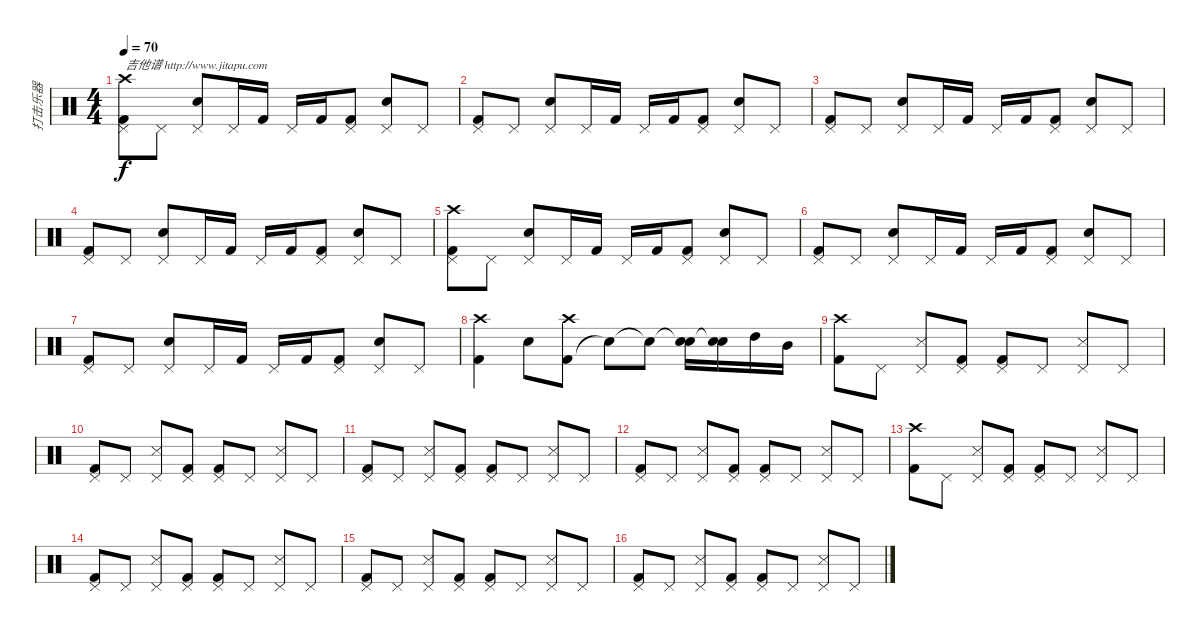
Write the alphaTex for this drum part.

\track ("打击乐器" "打击乐器") {instrument percussion}
\staff {score}
\articulation defaults
\ts (4 4)
\tempo 70
\clef neutral
\ks c
("Pedal Hi-Hat (hit)" "Kick (hit) 2" "Crash high (hit)").8{txt "吉他谱 http://www.jitapu.com" dy f} "Pedal Hi-Hat (hit)".8 ("Pedal Hi-Hat (hit)" "Snare (hit) 2").8 "Pedal Hi-Hat (hit)".16 "Kick (hit) 2".16 "Pedal Hi-Hat (hit)".16 "Kick (hit) 2".16 ("Pedal Hi-Hat (hit)" "Kick (hit) 2").8 ("Pedal Hi-Hat (hit)" "Snare (hit) 2").8 "Pedal Hi-Hat (hit)".8 |
("Pedal Hi-Hat (hit)" "Kick (hit) 2").8 "Pedal Hi-Hat (hit)".8 ("Pedal Hi-Hat (hit)" "Snare (hit) 2").8 "Pedal Hi-Hat (hit)".16 "Kick (hit) 2".16 "Pedal Hi-Hat (hit)".16 "Kick (hit) 2".16 ("Pedal Hi-Hat (hit)" "Kick (hit) 2").8 ("Pedal Hi-Hat (hit)" "Snare (hit) 2").8 "Pedal Hi-Hat (hit)".8 |
("Pedal Hi-Hat (hit)" "Kick (hit) 2").8 "Pedal Hi-Hat (hit)".8 ("Pedal Hi-Hat (hit)" "Snare (hit) 2").8 "Pedal Hi-Hat (hit)".16 "Kick (hit) 2".16 "Pedal Hi-Hat (hit)".16 "Kick (hit) 2".16 ("Pedal Hi-Hat (hit)" "Kick (hit) 2").8 ("Pedal Hi-Hat (hit)" "Snare (hit) 2").8 "Pedal Hi-Hat (hit)".8 |
("Pedal Hi-Hat (hit)" "Kick (hit) 2").8 "Pedal Hi-Hat (hit)".8 ("Pedal Hi-Hat (hit)" "Snare (hit) 2").8 "Pedal Hi-Hat (hit)".16 "Kick (hit) 2".16 "Pedal Hi-Hat (hit)".16 "Kick (hit) 2".16 ("Pedal Hi-Hat (hit)" "Kick (hit) 2").8 ("Pedal Hi-Hat (hit)" "Snare (hit) 2").8 "Pedal Hi-Hat (hit)".8 |
("Pedal Hi-Hat (hit)" "Kick (hit) 2" "Crash high (hit)").8 "Pedal Hi-Hat (hit)".8 ("Pedal Hi-Hat (hit)" "Snare (hit) 2").8 "Pedal Hi-Hat (hit)".16 "Kick (hit) 2".16 "Pedal Hi-Hat (hit)".16 "Kick (hit) 2".16 ("Pedal Hi-Hat (hit)" "Kick (hit) 2").8 ("Pedal Hi-Hat (hit)" "Snare (hit) 2").8 "Pedal Hi-Hat (hit)".8 |
("Pedal Hi-Hat (hit)" "Kick (hit) 2").8 "Pedal Hi-Hat (hit)".8 ("Pedal Hi-Hat (hit)" "Snare (hit) 2").8 "Pedal Hi-Hat (hit)".16 "Kick (hit) 2".16 "Pedal Hi-Hat (hit)".16 "Kick (hit) 2".16 ("Pedal Hi-Hat (hit)" "Kick (hit) 2").8 ("Pedal Hi-Hat (hit)" "Snare (hit) 2").8 "Pedal Hi-Hat (hit)".8 |
("Pedal Hi-Hat (hit)" "Kick (hit) 2").8 "Pedal Hi-Hat (hit)".8 ("Pedal Hi-Hat (hit)" "Snare (hit) 2").8 "Pedal Hi-Hat (hit)".16 "Kick (hit) 2".16 "Pedal Hi-Hat (hit)".16 "Kick (hit) 2".16 ("Pedal Hi-Hat (hit)" "Kick (hit) 2").8 ("Pedal Hi-Hat (hit)" "Snare (hit) 2").8 "Pedal Hi-Hat (hit)".8 |
("Crash high (hit)" "Kick (hit) 2").4 "Snare (hit) 2".8 ("Kick (hit) 2" "Crash high (hit)").8 "Snare (hit)"{t}.8 "Snare (hit)"{t}.8 ("Snare (hit)"{t} "Snare (hit) 2").16 ("Snare (hit)"{t} "Snare (hit) 2").16 "High Tom (hit)".16 "Mid Tom (hit)".16 |
("Crash high (hit)" "Kick (hit) 2").8 "Pedal Hi-Hat (hit)".8 ("Pedal Hi-Hat (hit)" "Snare (side stick) 3").8 ("Pedal Hi-Hat (hit)" "Kick (hit) 2").8 ("Pedal Hi-Hat (hit)" "Kick (hit) 2").8 "Pedal Hi-Hat (hit)".8 ("Pedal Hi-Hat (hit)" "Snare (side stick) 3").8 "Pedal Hi-Hat (hit)".8 |
("Pedal Hi-Hat (hit)" "Kick (hit) 2").8 "Pedal Hi-Hat (hit)".8 ("Pedal Hi-Hat (hit)" "Snare (side stick) 3").8 ("Pedal Hi-Hat (hit)" "Kick (hit) 2").8 ("Pedal Hi-Hat (hit)" "Kick (hit) 2").8 "Pedal Hi-Hat (hit)".8 ("Pedal Hi-Hat (hit)" "Snare (side stick) 3").8 "Pedal Hi-Hat (hit)".8 |
("Pedal Hi-Hat (hit)" "Kick (hit) 2").8 "Pedal Hi-Hat (hit)".8 ("Pedal Hi-Hat (hit)" "Snare (side stick) 3").8 ("Pedal Hi-Hat (hit)" "Kick (hit) 2").8 ("Pedal Hi-Hat (hit)" "Kick (hit) 2").8 "Pedal Hi-Hat (hit)".8 ("Pedal Hi-Hat (hit)" "Snare (side stick) 3").8 "Pedal Hi-Hat (hit)".8 |
("Pedal Hi-Hat (hit)" "Kick (hit) 2").8 "Pedal Hi-Hat (hit)".8 ("Pedal Hi-Hat (hit)" "Snare (side stick) 3").8 ("Pedal Hi-Hat (hit)" "Kick (hit) 2").8 ("Pedal Hi-Hat (hit)" "Kick (hit) 2").8 "Pedal Hi-Hat (hit)".8 ("Pedal Hi-Hat (hit)" "Snare (side stick) 3").8 "Pedal Hi-Hat (hit)".8 |
("Crash high (hit)" "Kick (hit) 2").8 "Pedal Hi-Hat (hit)".8 ("Pedal Hi-Hat (hit)" "Snare (side stick) 3").8 ("Pedal Hi-Hat (hit)" "Kick (hit) 2").8 ("Pedal Hi-Hat (hit)" "Kick (hit) 2").8 "Pedal Hi-Hat (hit)".8 ("Pedal Hi-Hat (hit)" "Snare (side stick) 3").8 "Pedal Hi-Hat (hit)".8 |
("Pedal Hi-Hat (hit)" "Kick (hit) 2").8 "Pedal Hi-Hat (hit)".8 ("Pedal Hi-Hat (hit)" "Snare (side stick) 3").8 ("Pedal Hi-Hat (hit)" "Kick (hit) 2").8 ("Pedal Hi-Hat (hit)" "Kick (hit) 2").8 "Pedal Hi-Hat (hit)".8 ("Pedal Hi-Hat (hit)" "Snare (side stick) 3").8 "Pedal Hi-Hat (hit)".8 |
("Pedal Hi-Hat (hit)" "Kick (hit) 2").8 "Pedal Hi-Hat (hit)".8 ("Pedal Hi-Hat (hit)" "Snare (side stick) 3").8 ("Pedal Hi-Hat (hit)" "Kick (hit) 2").8 ("Pedal Hi-Hat (hit)" "Kick (hit) 2").8 "Pedal Hi-Hat (hit)".8 ("Pedal Hi-Hat (hit)" "Snare (side stick) 3").8 "Pedal Hi-Hat (hit)".8 |
("Pedal Hi-Hat (hit)" "Kick (hit) 2").8 "Pedal Hi-Hat (hit)".8 ("Pedal Hi-Hat (hit)" "Snare (side stick) 3").8 ("Pedal Hi-Hat (hit)" "Kick (hit) 2").8 ("Pedal Hi-Hat (hit)" "Kick (hit) 2").8 "Pedal Hi-Hat (hit)".8 ("Pedal Hi-Hat (hit)" "Snare (side stick) 3").8 "Pedal Hi-Hat (hit)".8
